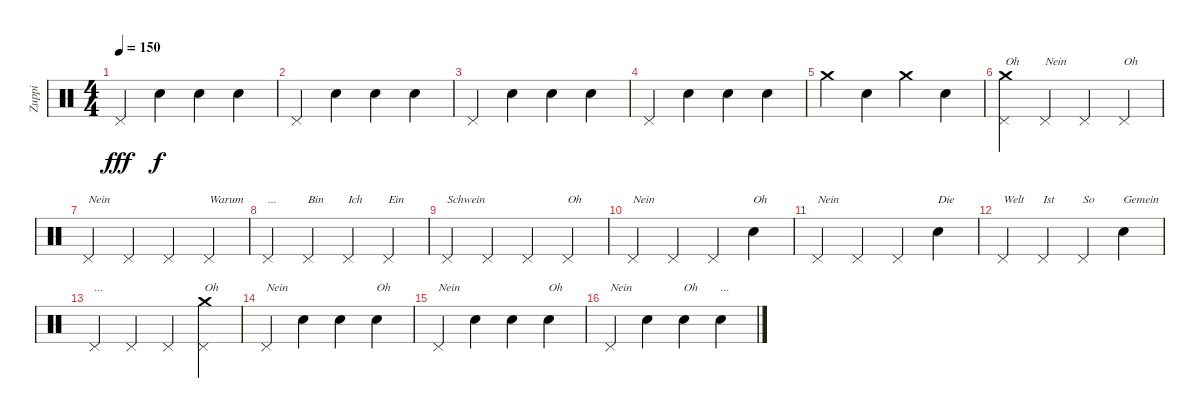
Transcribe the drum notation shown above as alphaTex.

\track ("Zuppi" "Zuppi") {instrument percussion}
\staff {score}
\articulation defaults
\ts (4 4)
\tempo 150
\clef neutral
\ks c "Pedal Hi-Hat (hit)".4{dy fff} "Snare (hit)".4{dy f} "Snare (hit)".4 "Snare (hit)".4
|
"Pedal Hi-Hat (hit)".4 "Snare (hit)".4 "Snare (hit)".4 "Snare (hit)".4 |
"Pedal Hi-Hat (hit)".4 "Snare (hit)".4 "Snare (hit)".4 "Snare (hit)".4 |
"Pedal Hi-Hat (hit)".4 "Snare (hit)".4 "Snare (hit)".4 "Snare (hit)".4 |
"Crash medium (hit)".4 "Snare (hit)".4 "Crash medium (hit)".4 "Snare (hit)".4 |
("Crash medium (hit)" "Pedal Hi-Hat (hit)").4{txt "Oh"} "Pedal Hi-Hat (hit)".4{txt "Nein"} "Pedal Hi-Hat (hit)".4 "Pedal Hi-Hat (hit)".4{txt "Oh"} |
"Pedal Hi-Hat (hit)".4{txt "Nein"} "Pedal Hi-Hat (hit)".4 "Pedal Hi-Hat (hit)".4 "Pedal Hi-Hat (hit)".4{txt "Warum"} |
"Pedal Hi-Hat (hit)".4{txt "..."} "Pedal Hi-Hat (hit)".4{txt "Bin"} "Pedal Hi-Hat (hit)".4{txt "Ich"} "Pedal Hi-Hat (hit)".4{txt "Ein"} |
"Pedal Hi-Hat (hit)".4{txt "Schwein"} "Pedal Hi-Hat (hit)".4 "Pedal Hi-Hat (hit)".4 "Pedal Hi-Hat (hit)".4{txt "Oh"} |
"Pedal Hi-Hat (hit)".4{txt "Nein"} "Pedal Hi-Hat (hit)".4 "Pedal Hi-Hat (hit)".4 "Snare (hit)".4{txt "Oh"} |
"Pedal Hi-Hat (hit)".4{txt "Nein"} "Pedal Hi-Hat (hit)".4 "Pedal Hi-Hat (hit)".4 "Snare (hit)".4{txt "Die"} |
"Pedal Hi-Hat (hit)".4{txt "Welt"} "Pedal Hi-Hat (hit)".4{txt "Ist"} "Pedal Hi-Hat (hit)".4{txt "So"} "Snare (hit)".4{txt "Gemein"} |
"Pedal Hi-Hat (hit)".4{txt "..."} "Pedal Hi-Hat (hit)".4 "Pedal Hi-Hat (hit)".4 ("Crash medium (hit)" "Pedal Hi-Hat (hit)").4{txt "Oh"} |
"Pedal Hi-Hat (hit)".4{txt "Nein"} "Snare (hit)".4 "Snare (hit)".4 "Snare (hit)".4{txt "Oh"} |
"Pedal Hi-Hat (hit)".4{txt "Nein"} "Snare (hit)".4 "Snare (hit)".4 "Snare (hit)".4{txt "Oh"} |
"Pedal Hi-Hat (hit)".4{txt "Nein"} "Snare (hit)".4 "Snare (hit)".4{txt "Oh"} "Snare (hit)".4{txt "..."}
